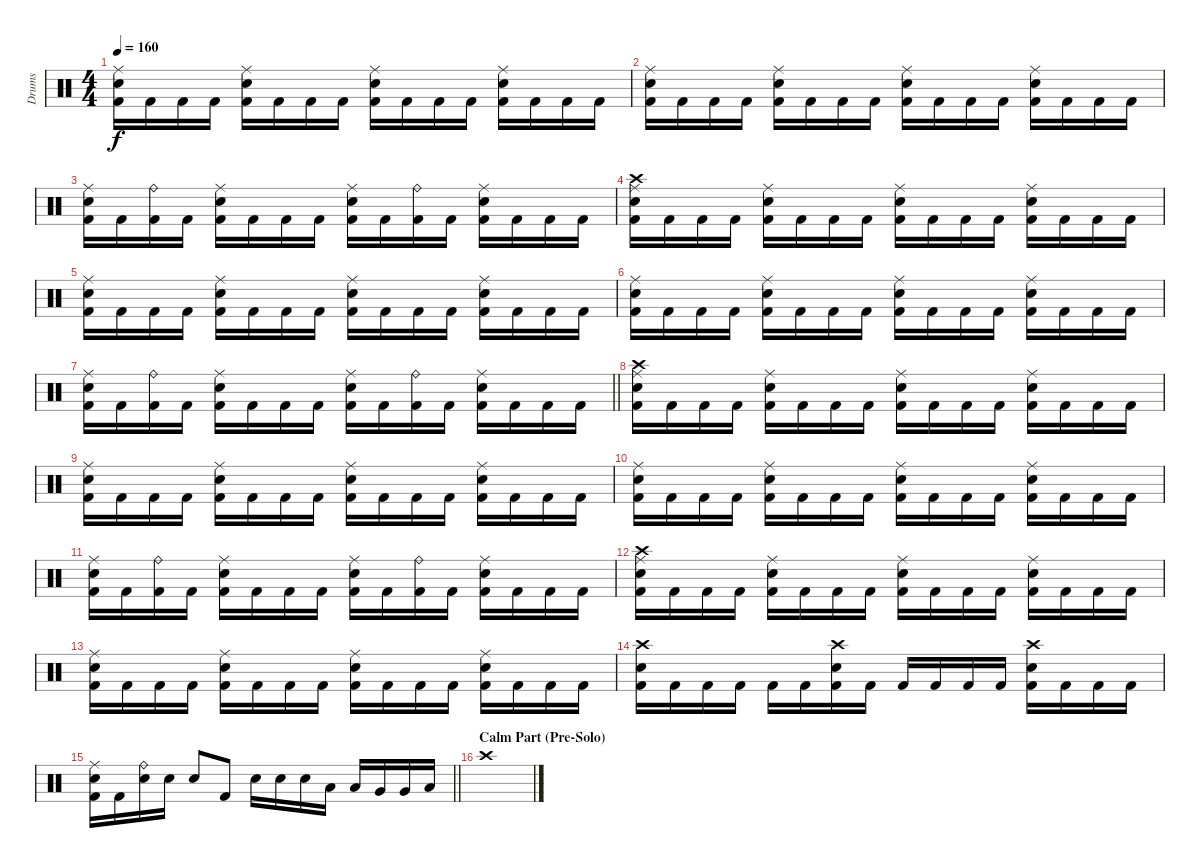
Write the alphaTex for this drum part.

\track ("Drums" "Drums") {instrument percussion}
\staff {score}
\articulation defaults
\ts (4 4)
\tempo 160
\clef neutral
\ks c
("Snare (hit) 2" "Kick (hit) 2" "Ride (middle)").16{dy f} "Kick (hit) 2".16 "Kick (hit) 2".16 "Kick (hit) 2".16 ("Snare (hit) 2" "Kick (hit) 2" "Ride (middle)").16 "Kick (hit) 2".16 "Kick (hit) 2".16 "Kick (hit) 2".16 ("Snare (hit) 2" "Kick (hit) 2" "Ride (middle)").16 "Kick (hit) 2".16 "Kick (hit) 2".16 "Kick (hit) 2".16 ("Snare (hit) 2" "Kick (hit) 2" "Ride (middle)").16 "Kick (hit) 2".16 "Kick (hit) 2".16 "Kick (hit) 2".16 |
("Snare (hit) 2" "Kick (hit) 2" "Ride (middle)").16 "Kick (hit) 2".16 "Kick (hit) 2".16 "Kick (hit) 2".16 ("Snare (hit) 2" "Kick (hit) 2" "Ride (middle)").16 "Kick (hit) 2".16 "Kick (hit) 2".16 "Kick (hit) 2".16 ("Snare (hit) 2" "Kick (hit) 2" "Ride (middle)").16 "Kick (hit) 2".16 "Kick (hit) 2".16 "Kick (hit) 2".16 ("Snare (hit) 2" "Kick (hit) 2" "Ride (middle)").16 "Kick (hit) 2".16 "Kick (hit) 2".16 "Kick (hit) 2".16 |
("Snare (hit) 2" "Kick (hit) 2" "Ride (middle)").16 "Kick (hit) 2".16 ("Kick (hit) 2" "Ride (bell)").16 "Kick (hit) 2".16 ("Snare (hit) 2" "Kick (hit) 2" "Ride (middle)").16 "Kick (hit) 2".16 "Kick (hit) 2".16 "Kick (hit) 2".16 ("Snare (hit) 2" "Kick (hit) 2" "Ride (middle)").16 "Kick (hit) 2".16 ("Kick (hit) 2" "Ride (bell)").16 "Kick (hit) 2".16 ("Snare (hit) 2" "Kick (hit) 2" "Ride (middle)").16 "Kick (hit) 2".16 "Kick (hit) 2".16 "Kick (hit) 2".16 |
("Snare (hit) 2" "Kick (hit) 2" "Ride (middle)" "Crash high (hit)").16 "Kick (hit) 2".16 "Kick (hit) 2".16 "Kick (hit) 2".16 ("Snare (hit) 2" "Kick (hit) 2" "Ride (middle)").16 "Kick (hit) 2".16 "Kick (hit) 2".16 "Kick (hit) 2".16 ("Snare (hit) 2" "Kick (hit) 2" "Ride (middle)").16 "Kick (hit) 2".16 "Kick (hit) 2".16 "Kick (hit) 2".16 ("Snare (hit) 2" "Kick (hit) 2" "Ride (middle)").16 "Kick (hit) 2".16 "Kick (hit) 2".16 "Kick (hit) 2".16 |
("Snare (hit) 2" "Kick (hit) 2" "Ride (middle)").16 "Kick (hit) 2".16 "Kick (hit) 2".16 "Kick (hit) 2".16 ("Snare (hit) 2" "Kick (hit) 2" "Ride (middle)").16 "Kick (hit) 2".16 "Kick (hit) 2".16 "Kick (hit) 2".16 ("Snare (hit) 2" "Kick (hit) 2" "Ride (middle)").16 "Kick (hit) 2".16 "Kick (hit) 2".16 "Kick (hit) 2".16 ("Snare (hit) 2" "Kick (hit) 2" "Ride (middle)").16 "Kick (hit) 2".16 "Kick (hit) 2".16 "Kick (hit) 2".16 |
("Snare (hit) 2" "Kick (hit) 2" "Ride (middle)").16 "Kick (hit) 2".16 "Kick (hit) 2".16 "Kick (hit) 2".16 ("Snare (hit) 2" "Kick (hit) 2" "Ride (middle)").16 "Kick (hit) 2".16 "Kick (hit) 2".16 "Kick (hit) 2".16 ("Snare (hit) 2" "Kick (hit) 2" "Ride (middle)").16 "Kick (hit) 2".16 "Kick (hit) 2".16 "Kick (hit) 2".16 ("Snare (hit) 2" "Kick (hit) 2" "Ride (middle)").16 "Kick (hit) 2".16 "Kick (hit) 2".16 "Kick (hit) 2".16 |
\barLineRight lightlight
("Snare (hit) 2" "Kick (hit) 2" "Ride (middle)").16 "Kick (hit) 2".16 ("Kick (hit) 2" "Ride (bell)").16 "Kick (hit) 2".16 ("Snare (hit) 2" "Kick (hit) 2" "Ride (middle)").16 "Kick (hit) 2".16 "Kick (hit) 2".16 "Kick (hit) 2".16 ("Snare (hit) 2" "Kick (hit) 2" "Ride (middle)").16 "Kick (hit) 2".16 ("Kick (hit) 2" "Ride (bell)").16 "Kick (hit) 2".16 ("Snare (hit) 2" "Kick (hit) 2" "Ride (middle)").16 "Kick (hit) 2".16 "Kick (hit) 2".16 "Kick (hit) 2".16 |
("Snare (hit) 2" "Kick (hit) 2" "Ride (middle)" "Crash high (hit)").16 "Kick (hit) 2".16 "Kick (hit) 2".16 "Kick (hit) 2".16 ("Snare (hit) 2" "Kick (hit) 2" "Ride (middle)").16 "Kick (hit) 2".16 "Kick (hit) 2".16 "Kick (hit) 2".16 ("Snare (hit) 2" "Kick (hit) 2" "Ride (middle)").16 "Kick (hit) 2".16 "Kick (hit) 2".16 "Kick (hit) 2".16 ("Snare (hit) 2" "Kick (hit) 2" "Ride (middle)").16 "Kick (hit) 2".16 "Kick (hit) 2".16 "Kick (hit) 2".16 |
("Snare (hit) 2" "Kick (hit) 2" "Ride (middle)").16 "Kick (hit) 2".16 "Kick (hit) 2".16 "Kick (hit) 2".16 ("Snare (hit) 2" "Kick (hit) 2" "Ride (middle)").16 "Kick (hit) 2".16 "Kick (hit) 2".16 "Kick (hit) 2".16 ("Snare (hit) 2" "Kick (hit) 2" "Ride (middle)").16 "Kick (hit) 2".16 "Kick (hit) 2".16 "Kick (hit) 2".16 ("Snare (hit) 2" "Kick (hit) 2" "Ride (middle)").16 "Kick (hit) 2".16 "Kick (hit) 2".16 "Kick (hit) 2".16 |
("Snare (hit) 2" "Kick (hit) 2" "Ride (middle)").16 "Kick (hit) 2".16 "Kick (hit) 2".16 "Kick (hit) 2".16 ("Snare (hit) 2" "Kick (hit) 2" "Ride (middle)").16 "Kick (hit) 2".16 "Kick (hit) 2".16 "Kick (hit) 2".16 ("Snare (hit) 2" "Kick (hit) 2" "Ride (middle)").16 "Kick (hit) 2".16 "Kick (hit) 2".16 "Kick (hit) 2".16 ("Snare (hit) 2" "Kick (hit) 2" "Ride (middle)").16 "Kick (hit) 2".16 "Kick (hit) 2".16 "Kick (hit) 2".16 |
("Snare (hit) 2" "Kick (hit) 2" "Ride (middle)").16 "Kick (hit) 2".16 ("Kick (hit) 2" "Ride (bell)").16 "Kick (hit) 2".16 ("Snare (hit) 2" "Kick (hit) 2" "Ride (middle)").16 "Kick (hit) 2".16 "Kick (hit) 2".16 "Kick (hit) 2".16 ("Snare (hit) 2" "Kick (hit) 2" "Ride (middle)").16 "Kick (hit) 2".16 ("Kick (hit) 2" "Ride (bell)").16 "Kick (hit) 2".16 ("Snare (hit) 2" "Kick (hit) 2" "Ride (middle)").16 "Kick (hit) 2".16 "Kick (hit) 2".16 "Kick (hit) 2".16 |
("Snare (hit) 2" "Kick (hit) 2" "Ride (middle)" "Crash high (hit)").16 "Kick (hit) 2".16 "Kick (hit) 2".16 "Kick (hit) 2".16 ("Snare (hit) 2" "Kick (hit) 2" "Ride (middle)").16 "Kick (hit) 2".16 "Kick (hit) 2".16 "Kick (hit) 2".16 ("Snare (hit) 2" "Kick (hit) 2" "Ride (middle)").16 "Kick (hit) 2".16 "Kick (hit) 2".16 "Kick (hit) 2".16 ("Snare (hit) 2" "Kick (hit) 2" "Ride (middle)").16 "Kick (hit) 2".16 "Kick (hit) 2".16 "Kick (hit) 2".16 |
("Snare (hit) 2" "Kick (hit) 2" "Ride (middle)").16 "Kick (hit) 2".16 "Kick (hit) 2".16 "Kick (hit) 2".16 ("Snare (hit) 2" "Kick (hit) 2" "Ride (middle)").16 "Kick (hit) 2".16 "Kick (hit) 2".16 "Kick (hit) 2".16 ("Snare (hit) 2" "Kick (hit) 2" "Ride (middle)").16 "Kick (hit) 2".16 "Kick (hit) 2".16 "Kick (hit) 2".16 ("Snare (hit) 2" "Kick (hit) 2" "Ride (middle)").16 "Kick (hit) 2".16 "Kick (hit) 2".16 "Kick (hit) 2".16 |
("Snare (hit) 2" "Kick (hit) 2" "Crash high (hit)").16 "Kick (hit) 2".16 "Kick (hit) 2".16 "Kick (hit) 2".16 "Kick (hit) 2".16 "Kick (hit) 2".16 ("Snare (hit) 2" "Kick (hit) 2" "Crash high (hit)").16 "Kick (hit) 2".16 "Kick (hit) 2".16 "Kick (hit) 2".16 "Kick (hit) 2".16 "Kick (hit) 2".16 ("Snare (hit) 2" "Kick (hit) 2" "Crash high (hit)").16 "Kick (hit) 2".16 "Kick (hit) 2".16 "Kick (hit) 2".16 |
\barLineRight lightlight
("Snare (hit) 2" "Kick (hit) 2" "Ride (middle)").16 "Kick (hit) 2".16 ("Snare (hit) 2" "Ride (bell)").16 "Snare (hit) 2".16 "Snare (hit) 2".8 "Kick (hit) 2".8 "Snare (hit) 2".16 "Snare (hit) 2".16 "Snare (hit) 2".16 "Low Tom (hit)".16 "Low Tom (hit)".16 "Very Low Tom (hit)".16 "Very Low Tom (hit)".16 "Low Floor Tom (hit)".16 |
\section ("" "Calm Part (Pre-Solo)")
"Crash high (hit)".1
